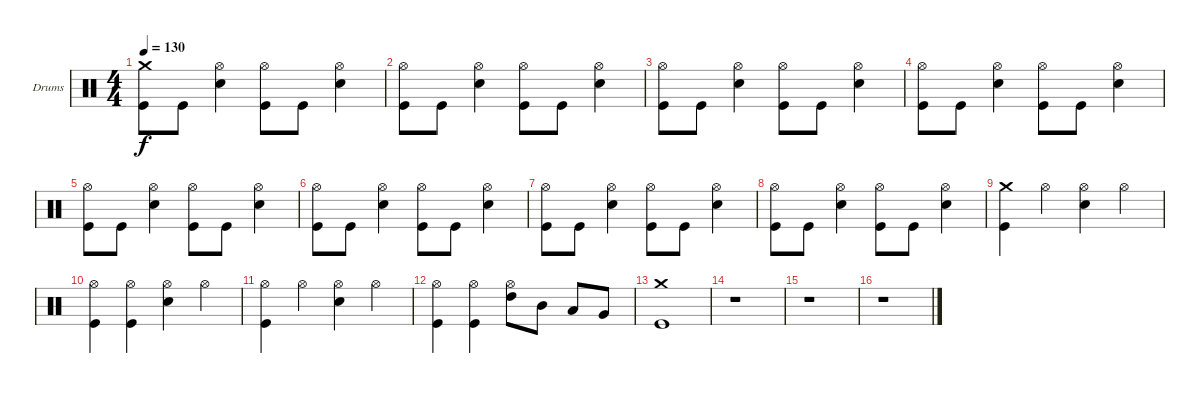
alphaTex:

\defaultSystemsLayout 4
\bracketExtendMode groupsimilarinstruments
\firstSystemTrackNameOrientation horizontal
\otherSystemsTrackNameOrientation horizontal
\track ("Drumkit" "Drums") {instrument percussion}
\staff {score}
\articulation defaults
\ts (4 4)
\tempo 130
\clef neutral
\scale
0.333333
\ks c
("Crash medium (hit)" "Kick (hit)").8{dy f} "Kick (hit)".8 ("Hi-Hat (open)" "Snare (hit) 2").4 ("Hi-Hat (open)" "Kick (hit)").8 "Kick (hit)".8 ("Hi-Hat (open)" "Snare (hit) 2").4 |
\scale
0.333333 ("Hi-Hat (open)" "Kick (hit)").8 "Kick (hit)".8 ("Hi-Hat (open)" "Snare (hit) 2").4 ("Hi-Hat (open)" "Kick (hit)").8 "Kick (hit)".8 ("Hi-Hat (open)" "Snare (hit) 2").4 |
\scale
0.333333 ("Hi-Hat (open)" "Kick (hit)").8 "Kick (hit)".8 ("Hi-Hat (open)" "Snare (hit) 2").4 ("Hi-Hat (open)" "Kick (hit)").8 "Kick (hit)".8 ("Hi-Hat (open)" "Snare (hit) 2").4 |
\scale
0.333333 ("Hi-Hat (open)" "Kick (hit)").8 "Kick (hit)".8 ("Hi-Hat (open)" "Snare (hit) 2").4 ("Hi-Hat (open)" "Kick (hit)").8 "Kick (hit)".8 ("Hi-Hat (open)" "Snare (hit) 2").4 |
\scale
0.333333 ("Hi-Hat (open)" "Kick (hit)").8 "Kick (hit)".8 ("Hi-Hat (open)" "Snare (hit) 2").4 ("Hi-Hat (open)" "Kick (hit)").8 "Kick (hit)".8 ("Hi-Hat (open)" "Snare (hit) 2").4 |
\scale
0.333333 ("Hi-Hat (open)" "Kick (hit)").8 "Kick (hit)".8 ("Hi-Hat (open)" "Snare (hit) 2").4 ("Hi-Hat (open)" "Kick (hit)").8 "Kick (hit)".8 ("Hi-Hat (open)" "Snare (hit) 2").4 |
\scale
0.333333 ("Hi-Hat (open)" "Kick (hit)").8 "Kick (hit)".8 ("Hi-Hat (open)" "Snare (hit) 2").4 ("Hi-Hat (open)" "Kick (hit)").8 "Kick (hit)".8 ("Hi-Hat (open)" "Snare (hit) 2").4 |
\scale
0.333333 ("Hi-Hat (open)" "Kick (hit)").8 "Kick (hit)".8 ("Hi-Hat (open)" "Snare (hit) 2").4 ("Hi-Hat (open)" "Kick (hit)").8 "Kick (hit)".8 ("Hi-Hat (open)" "Snare (hit) 2").4 |
\scale
0.333333 ("Crash medium (hit)" "Kick (hit)").4 "Hi-Hat (open)".4 ("Hi-Hat (open)" "Snare (hit) 2").4 "Hi-Hat (open)".4 |
\scale
0.333333 ("Hi-Hat (open)" "Kick (hit)").4 ("Hi-Hat (open)" "Kick (hit)").4 ("Hi-Hat (open)" "Snare (hit) 2").4 "Hi-Hat (open)".4 |
\scale
0.333333 ("Hi-Hat (open)" "Kick (hit)").4 "Hi-Hat (open)".4 ("Hi-Hat (open)" "Snare (hit) 2").4 "Hi-Hat (open)".4 |
\scale
0.333333 ("Hi-Hat (open)" "Kick (hit)").4 ("Hi-Hat (open)" "Kick (hit)").4 ("Hi-Hat (open)" "High Tom (hit)").8 "Mid Tom (hit)".8 "Low Tom (hit)".8 "Very Low Tom (hit)".8 |
\scale
0.333333 ("Crash medium (hit)" "Kick (hit)").1 |
\scale
0.333333 r.1 |
\scale
0.333333 r.1 |
\scale
0.333333 r.1
